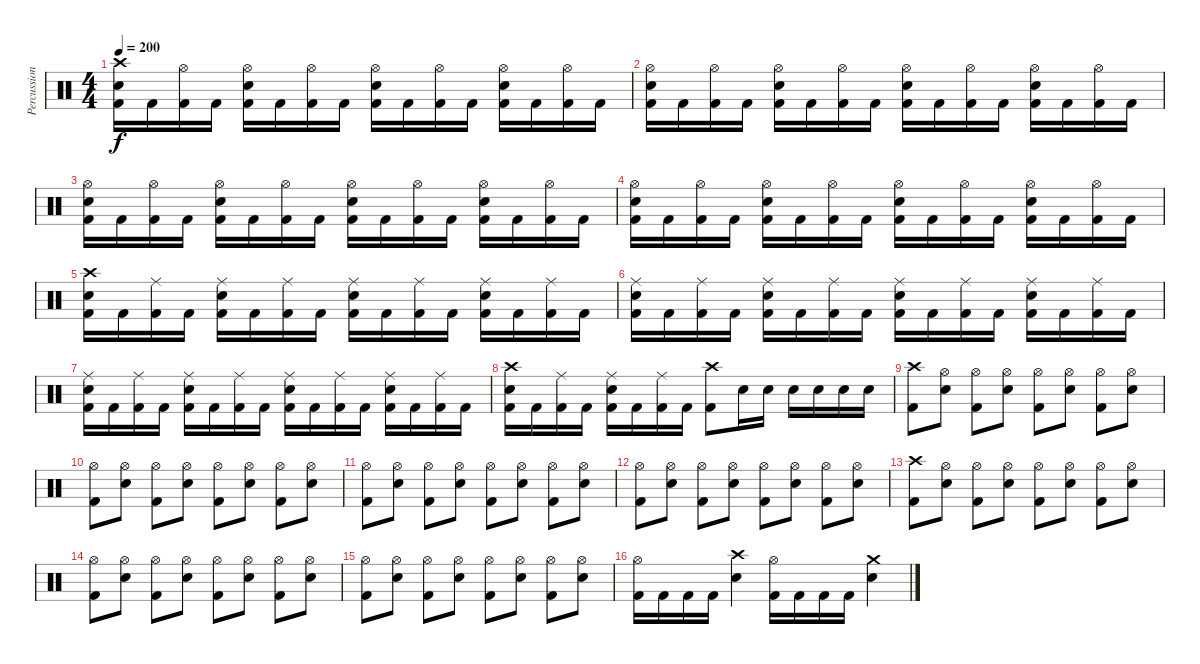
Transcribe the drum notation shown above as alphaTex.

\track ("Percussions" "Percussion") {instrument percussion}
\staff {score}
\articulation defaults
\ts (4 4)
\tempo 200
\clef neutral
\ks c
("Crash high (hit)" "Electric Snare (hit)" "Kick (hit) 2").16{dy f} "Kick (hit) 2".16 ("Hi-Hat (open)" "Kick (hit) 2").16 "Kick (hit) 2".16 ("Hi-Hat (open)" "Electric Snare (hit)" "Kick (hit) 2").16 "Kick (hit) 2".16 ("Hi-Hat (open)" "Kick (hit) 2").16 "Kick (hit) 2".16 ("Hi-Hat (open)" "Electric Snare (hit)" "Kick (hit) 2").16 "Kick (hit) 2".16 ("Hi-Hat (open)" "Kick (hit) 2").16 "Kick (hit) 2".16 ("Hi-Hat (open)" "Electric Snare (hit)" "Kick (hit) 2").16 "Kick (hit) 2".16 ("Hi-Hat (open)" "Kick (hit) 2").16 "Kick (hit) 2".16 |
("Hi-Hat (open)" "Electric Snare (hit)" "Kick (hit) 2").16 "Kick (hit) 2".16 ("Hi-Hat (open)" "Kick (hit) 2").16 "Kick (hit) 2".16 ("Hi-Hat (open)" "Electric Snare (hit)" "Kick (hit) 2").16 "Kick (hit) 2".16 ("Hi-Hat (open)" "Kick (hit) 2").16 "Kick (hit) 2".16 ("Hi-Hat (open)" "Electric Snare (hit)" "Kick (hit) 2").16 "Kick (hit) 2".16 ("Hi-Hat (open)" "Kick (hit) 2").16 "Kick (hit) 2".16 ("Hi-Hat (open)" "Electric Snare (hit)" "Kick (hit) 2").16 "Kick (hit) 2".16 ("Hi-Hat (open)" "Kick (hit) 2").16 "Kick (hit) 2".16 |
("Hi-Hat (open)" "Electric Snare (hit)" "Kick (hit) 2").16 "Kick (hit) 2".16 ("Hi-Hat (open)" "Kick (hit) 2").16 "Kick (hit) 2".16 ("Hi-Hat (open)" "Electric Snare (hit)" "Kick (hit) 2").16 "Kick (hit) 2".16 ("Hi-Hat (open)" "Kick (hit) 2").16 "Kick (hit) 2".16 ("Hi-Hat (open)" "Electric Snare (hit)" "Kick (hit) 2").16 "Kick (hit) 2".16 ("Hi-Hat (open)" "Kick (hit) 2").16 "Kick (hit) 2".16 ("Hi-Hat (open)" "Electric Snare (hit)" "Kick (hit) 2").16 "Kick (hit) 2".16 ("Hi-Hat (open)" "Kick (hit) 2").16 "Kick (hit) 2".16 |
("Hi-Hat (open)" "Electric Snare (hit)" "Kick (hit) 2").16 "Kick (hit) 2".16 ("Hi-Hat (open)" "Kick (hit) 2").16 "Kick (hit) 2".16 ("Hi-Hat (open)" "Electric Snare (hit)" "Kick (hit) 2").16 "Kick (hit) 2".16 ("Hi-Hat (open)" "Kick (hit) 2").16 "Kick (hit) 2".16 ("Hi-Hat (open)" "Electric Snare (hit)" "Kick (hit) 2").16 "Kick (hit) 2".16 ("Hi-Hat (open)" "Kick (hit) 2").16 "Kick (hit) 2".16 ("Hi-Hat (open)" "Electric Snare (hit)" "Kick (hit) 2").16 "Kick (hit) 2".16 ("Hi-Hat (open)" "Kick (hit) 2").16 "Kick (hit) 2".16 |
("Crash high (hit)" "Electric Snare (hit)" "Kick (hit) 2").16 "Kick (hit) 2".16 ("Ride (middle)" "Kick (hit) 2").16 "Kick (hit) 2".16 ("Ride (middle)" "Electric Snare (hit)" "Kick (hit) 2").16 "Kick (hit) 2".16 ("Ride (middle)" "Kick (hit) 2").16 "Kick (hit) 2".16 ("Ride (middle)" "Electric Snare (hit)" "Kick (hit) 2").16 "Kick (hit) 2".16 ("Ride (middle)" "Kick (hit) 2").16 "Kick (hit) 2".16 ("Ride (middle)" "Electric Snare (hit)" "Kick (hit) 2").16 "Kick (hit) 2".16 ("Ride (middle)" "Kick (hit) 2").16 "Kick (hit) 2".16 |
("Ride (middle)" "Electric Snare (hit)" "Kick (hit) 2").16 "Kick (hit) 2".16 ("Ride (middle)" "Kick (hit) 2").16 "Kick (hit) 2".16 ("Ride (middle)" "Electric Snare (hit)" "Kick (hit) 2").16 "Kick (hit) 2".16 ("Ride (middle)" "Kick (hit) 2").16 "Kick (hit) 2".16 ("Ride (middle)" "Electric Snare (hit)" "Kick (hit) 2").16 "Kick (hit) 2".16 ("Ride (middle)" "Kick (hit) 2").16 "Kick (hit) 2".16 ("Ride (middle)" "Electric Snare (hit)" "Kick (hit) 2").16 "Kick (hit) 2".16 ("Ride (middle)" "Kick (hit) 2").16 "Kick (hit) 2".16 |
("Ride (middle)" "Electric Snare (hit)" "Kick (hit) 2").16 "Kick (hit) 2".16 ("Ride (middle)" "Kick (hit) 2").16 "Kick (hit) 2".16 ("Ride (middle)" "Electric Snare (hit)" "Kick (hit) 2").16 "Kick (hit) 2".16 ("Ride (middle)" "Kick (hit) 2").16 "Kick (hit) 2".16 ("Ride (middle)" "Electric Snare (hit)" "Kick (hit) 2").16 "Kick (hit) 2".16 ("Ride (middle)" "Kick (hit) 2").16 "Kick (hit) 2".16 ("Ride (middle)" "Electric Snare (hit)" "Kick (hit) 2").16 "Kick (hit) 2".16 ("Ride (middle)" "Kick (hit) 2").16 "Kick (hit) 2".16 |
("Crash high (hit)" "Electric Snare (hit)" "Kick (hit) 2").16 "Kick (hit) 2".16 ("Ride (middle)" "Kick (hit) 2").16 "Kick (hit) 2".16 ("Ride (middle)" "Electric Snare (hit)" "Kick (hit) 2").16 "Kick (hit) 2".16 ("Ride (middle)" "Kick (hit) 2").16 "Kick (hit) 2".16 ("Crash high (hit)" "Kick (hit) 2").8 "Electric Snare (hit)".16 "Electric Snare (hit)".16 "Electric Snare (hit)".16 "Electric Snare (hit)".16 "Electric Snare (hit)".16 "Electric Snare (hit)".16 |
("Crash high (hit)" "Kick (hit) 2").8 ("Hi-Hat (open)" "Electric Snare (hit)").8 ("Hi-Hat (open)" "Kick (hit) 2").8 ("Hi-Hat (open)" "Electric Snare (hit)").8 ("Hi-Hat (open)" "Kick (hit) 2").8 ("Hi-Hat (open)" "Electric Snare (hit)").8 ("Hi-Hat (open)" "Kick (hit) 2").8 ("Hi-Hat (open)" "Electric Snare (hit)").8 |
("Hi-Hat (open)" "Kick (hit) 2").8 ("Hi-Hat (open)" "Electric Snare (hit)").8 ("Hi-Hat (open)" "Kick (hit) 2").8 ("Hi-Hat (open)" "Electric Snare (hit)").8 ("Hi-Hat (open)" "Kick (hit) 2").8 ("Hi-Hat (open)" "Electric Snare (hit)").8 ("Hi-Hat (open)" "Kick (hit) 2").8 ("Hi-Hat (open)" "Electric Snare (hit)").8 |
("Hi-Hat (open)" "Kick (hit) 2").8 ("Hi-Hat (open)" "Electric Snare (hit)").8 ("Hi-Hat (open)" "Kick (hit) 2").8 ("Hi-Hat (open)" "Electric Snare (hit)").8 ("Hi-Hat (open)" "Kick (hit) 2").8 ("Hi-Hat (open)" "Electric Snare (hit)").8 ("Hi-Hat (open)" "Kick (hit) 2").8 ("Hi-Hat (open)" "Electric Snare (hit)").8 |
("Hi-Hat (open)" "Kick (hit) 2").8 ("Hi-Hat (open)" "Electric Snare (hit)").8 ("Hi-Hat (open)" "Kick (hit) 2").8 ("Hi-Hat (open)" "Electric Snare (hit)").8 ("Hi-Hat (open)" "Kick (hit) 2").8 ("Hi-Hat (open)" "Electric Snare (hit)").8 ("Hi-Hat (open)" "Kick (hit) 2").8 ("Hi-Hat (open)" "Electric Snare (hit)").8 |
("Crash high (hit)" "Kick (hit) 2").8 ("Hi-Hat (open)" "Electric Snare (hit)").8 ("Hi-Hat (open)" "Kick (hit) 2").8 ("Hi-Hat (open)" "Electric Snare (hit)").8 ("Hi-Hat (open)" "Kick (hit) 2").8 ("Hi-Hat (open)" "Electric Snare (hit)").8 ("Hi-Hat (open)" "Kick (hit) 2").8 ("Hi-Hat (open)" "Electric Snare (hit)").8 |
("Hi-Hat (open)" "Kick (hit) 2").8 ("Hi-Hat (open)" "Electric Snare (hit)").8 ("Hi-Hat (open)" "Kick (hit) 2").8 ("Hi-Hat (open)" "Electric Snare (hit)").8 ("Hi-Hat (open)" "Kick (hit) 2").8 ("Hi-Hat (open)" "Electric Snare (hit)").8 ("Hi-Hat (open)" "Kick (hit) 2").8 ("Hi-Hat (open)" "Electric Snare (hit)").8 |
("Hi-Hat (open)" "Kick (hit) 2").8 ("Hi-Hat (open)" "Electric Snare (hit)").8 ("Hi-Hat (open)" "Kick (hit) 2").8 ("Hi-Hat (open)" "Electric Snare (hit)").8 ("Hi-Hat (open)" "Kick (hit) 2").8 ("Hi-Hat (open)" "Electric Snare (hit)").8 ("Hi-Hat (open)" "Kick (hit) 2").8 ("Hi-Hat (open)" "Electric Snare (hit)").8 |
("Hi-Hat (open)" "Kick (hit) 2").16 "Kick (hit) 2".16 "Kick (hit) 2".16 "Kick (hit) 2".16 ("Crash high (hit)" "Electric Snare (hit)").4 ("Hi-Hat (open)" "Kick (hit) 2").16 "Kick (hit) 2".16 "Kick (hit) 2".16 "Kick (hit) 2".16 ("Crash medium (hit)" "Electric Snare (hit)").4
